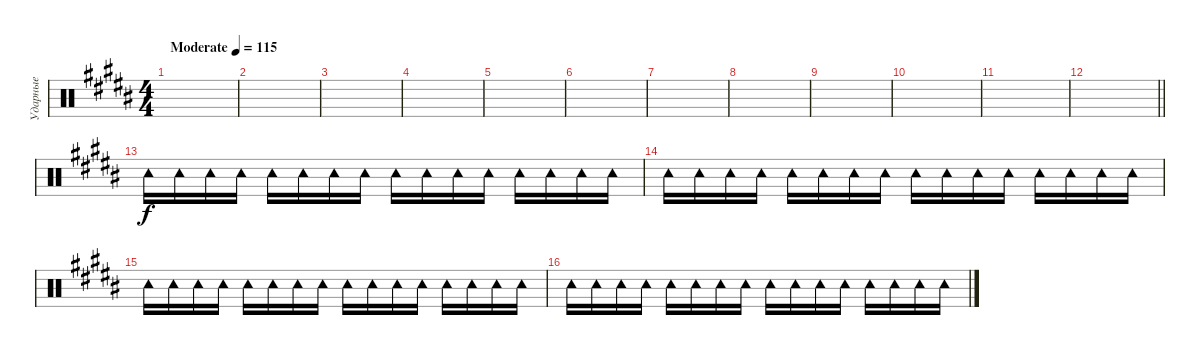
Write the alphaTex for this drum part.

\track ("Ударные" "Ударные") {instrument percussion}
\staff {score}
\articulation defaults
\ts (4 4)
\tempo (115 "Moderate")
\clef neutral
\ks b
|
|
|
|
|
|
|
|
|
|
|
\barLineRight lightlight
|
"Tambourine (hit)".16 "Tambourine (hit)".16 "Tambourine (hit)".16 "Tambourine (hit)".16 "Tambourine (hit)".16 "Tambourine (hit)".16 "Tambourine (hit)".16 "Tambourine (hit)".16 "Tambourine (hit)".16 "Tambourine (hit)".16 "Tambourine (hit)".16 "Tambourine (hit)".16 "Tambourine (hit)".16 "Tambourine (hit)".16 "Tambourine (hit)".16 "Tambourine (hit)".16 |
"Tambourine (hit)".16 "Tambourine (hit)".16 "Tambourine (hit)".16 "Tambourine (hit)".16 "Tambourine (hit)".16 "Tambourine (hit)".16 "Tambourine (hit)".16 "Tambourine (hit)".16 "Tambourine (hit)".16 "Tambourine (hit)".16 "Tambourine (hit)".16 "Tambourine (hit)".16 "Tambourine (hit)".16 "Tambourine (hit)".16 "Tambourine (hit)".16 "Tambourine (hit)".16 |
"Tambourine (hit)".16 "Tambourine (hit)".16 "Tambourine (hit)".16 "Tambourine (hit)".16 "Tambourine (hit)".16 "Tambourine (hit)".16 "Tambourine (hit)".16 "Tambourine (hit)".16 "Tambourine (hit)".16 "Tambourine (hit)".16 "Tambourine (hit)".16 "Tambourine (hit)".16 "Tambourine (hit)".16 "Tambourine (hit)".16 "Tambourine (hit)".16 "Tambourine (hit)".16 |
"Tambourine (hit)".16 "Tambourine (hit)".16 "Tambourine (hit)".16 "Tambourine (hit)".16 "Tambourine (hit)".16 "Tambourine (hit)".16 "Tambourine (hit)".16 "Tambourine (hit)".16 "Tambourine (hit)".16 "Tambourine (hit)".16 "Tambourine (hit)".16 "Tambourine (hit)".16 "Tambourine (hit)".16 "Tambourine (hit)".16 "Tambourine (hit)".16 "Tambourine (hit)".16
